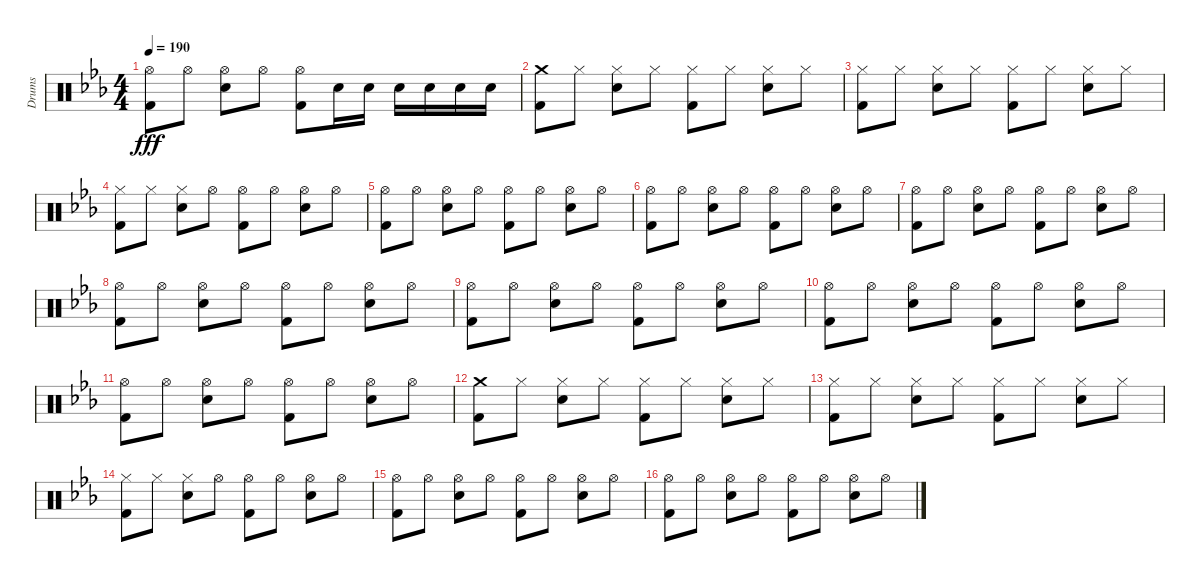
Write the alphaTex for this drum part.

\track ("Drums" "Drums") {instrument percussion}
\staff {score}
\articulation defaults
\ts (4 4)
\tempo 190
\clef neutral
\ks eb
("Hi-Hat (open)" "Kick (hit) 2").8{dy fff} "Hi-Hat (open)".8 ("Hi-Hat (open)" "Electric Snare (hit)").8 "Hi-Hat (open)".8 ("Hi-Hat (open)" "Kick (hit) 2").8 "Electric Snare (hit)".16 "Electric Snare (hit)".16 "Electric Snare (hit)".16 "Electric Snare (hit)".16 "Electric Snare (hit)".16 "Electric Snare (hit)".16 |
("Crash medium (hit)" "Kick (hit) 2").8 "Hi-Hat (closed)".8 ("Hi-Hat (closed)" "Electric Snare (hit)").8 "Hi-Hat (closed)".8 ("Hi-Hat (closed)" "Kick (hit) 2").8 "Hi-Hat (closed)".8 ("Hi-Hat (closed)" "Electric Snare (hit)").8 "Hi-Hat (closed)".8 |
("Hi-Hat (closed)" "Kick (hit) 2").8 "Hi-Hat (closed)".8 ("Hi-Hat (closed)" "Electric Snare (hit)").8 "Hi-Hat (closed)".8 ("Hi-Hat (closed)" "Kick (hit) 2").8 "Hi-Hat (closed)".8 ("Hi-Hat (closed)" "Electric Snare (hit)").8 "Hi-Hat (closed)".8 |
("Hi-Hat (closed)" "Kick (hit) 2").8 "Hi-Hat (closed)".8 ("Hi-Hat (closed)" "Electric Snare (hit)").8 "Hi-Hat (open)".8 ("Hi-Hat (open)" "Kick (hit) 2").8 "Hi-Hat (open)".8 ("Hi-Hat (open)" "Electric Snare (hit)").8 "Hi-Hat (open)".8 |
("Hi-Hat (open)" "Kick (hit) 2").8 "Hi-Hat (open)".8 ("Hi-Hat (open)" "Electric Snare (hit)").8 "Hi-Hat (open)".8 ("Hi-Hat (open)" "Kick (hit) 2").8 "Hi-Hat (open)".8 ("Hi-Hat (open)" "Electric Snare (hit)").8 "Hi-Hat (open)".8 |
("Hi-Hat (open)" "Kick (hit) 2").8 "Hi-Hat (open)".8 ("Hi-Hat (open)" "Electric Snare (hit)").8 "Hi-Hat (open)".8 ("Hi-Hat (open)" "Kick (hit) 2").8 "Hi-Hat (open)".8 ("Hi-Hat (open)" "Electric Snare (hit)").8 "Hi-Hat (open)".8 |
("Hi-Hat (open)" "Kick (hit) 2").8 "Hi-Hat (open)".8 ("Hi-Hat (open)" "Electric Snare (hit)").8 "Hi-Hat (open)".8 ("Hi-Hat (open)" "Kick (hit) 2").8 "Hi-Hat (open)".8 ("Hi-Hat (open)" "Electric Snare (hit)").8 "Hi-Hat (open)".8 |
("Hi-Hat (open)" "Kick (hit) 2").8 "Hi-Hat (open)".8 ("Hi-Hat (open)" "Electric Snare (hit)").8 "Hi-Hat (open)".8 ("Hi-Hat (open)" "Kick (hit) 2").8 "Hi-Hat (open)".8 ("Hi-Hat (open)" "Electric Snare (hit)").8 "Hi-Hat (open)".8 |
("Hi-Hat (open)" "Kick (hit) 2").8 "Hi-Hat (open)".8 ("Hi-Hat (open)" "Electric Snare (hit)").8 "Hi-Hat (open)".8 ("Hi-Hat (open)" "Kick (hit) 2").8 "Hi-Hat (open)".8 ("Hi-Hat (open)" "Electric Snare (hit)").8 "Hi-Hat (open)".8 |
("Hi-Hat (open)" "Kick (hit) 2").8 "Hi-Hat (open)".8 ("Hi-Hat (open)" "Electric Snare (hit)").8 "Hi-Hat (open)".8 ("Hi-Hat (open)" "Kick (hit) 2").8 "Hi-Hat (open)".8 ("Hi-Hat (open)" "Electric Snare (hit)").8 "Hi-Hat (open)".8 |
("Hi-Hat (open)" "Kick (hit) 2").8 "Hi-Hat (open)".8 ("Hi-Hat (open)" "Electric Snare (hit)").8 "Hi-Hat (open)".8 ("Hi-Hat (open)" "Kick (hit) 2").8 "Hi-Hat (open)".8 ("Hi-Hat (open)" "Electric Snare (hit)").8 "Hi-Hat (open)".8 |
("Crash medium (hit)" "Kick (hit) 2").8 "Hi-Hat (closed)".8 ("Hi-Hat (closed)" "Electric Snare (hit)").8 "Hi-Hat (closed)".8 ("Hi-Hat (closed)" "Kick (hit) 2").8 "Hi-Hat (closed)".8 ("Hi-Hat (closed)" "Electric Snare (hit)").8 "Hi-Hat (closed)".8 |
("Hi-Hat (closed)" "Kick (hit) 2").8 "Hi-Hat (closed)".8 ("Hi-Hat (closed)" "Electric Snare (hit)").8 "Hi-Hat (closed)".8 ("Hi-Hat (closed)" "Kick (hit) 2").8 "Hi-Hat (closed)".8 ("Hi-Hat (closed)" "Electric Snare (hit)").8 "Hi-Hat (closed)".8 |
("Hi-Hat (closed)" "Kick (hit) 2").8 "Hi-Hat (closed)".8 ("Hi-Hat (closed)" "Electric Snare (hit)").8 "Hi-Hat (open)".8 ("Hi-Hat (open)" "Kick (hit) 2").8 "Hi-Hat (open)".8 ("Hi-Hat (open)" "Electric Snare (hit)").8 "Hi-Hat (open)".8 |
("Hi-Hat (open)" "Kick (hit) 2").8 "Hi-Hat (open)".8 ("Hi-Hat (open)" "Electric Snare (hit)").8 "Hi-Hat (open)".8 ("Hi-Hat (open)" "Kick (hit) 2").8 "Hi-Hat (open)".8 ("Hi-Hat (open)" "Electric Snare (hit)").8 "Hi-Hat (open)".8 |
("Hi-Hat (open)" "Kick (hit) 2").8 "Hi-Hat (open)".8 ("Hi-Hat (open)" "Electric Snare (hit)").8 "Hi-Hat (open)".8 ("Hi-Hat (open)" "Kick (hit) 2").8 "Hi-Hat (open)".8 ("Hi-Hat (open)" "Electric Snare (hit)").8 "Hi-Hat (open)".8
